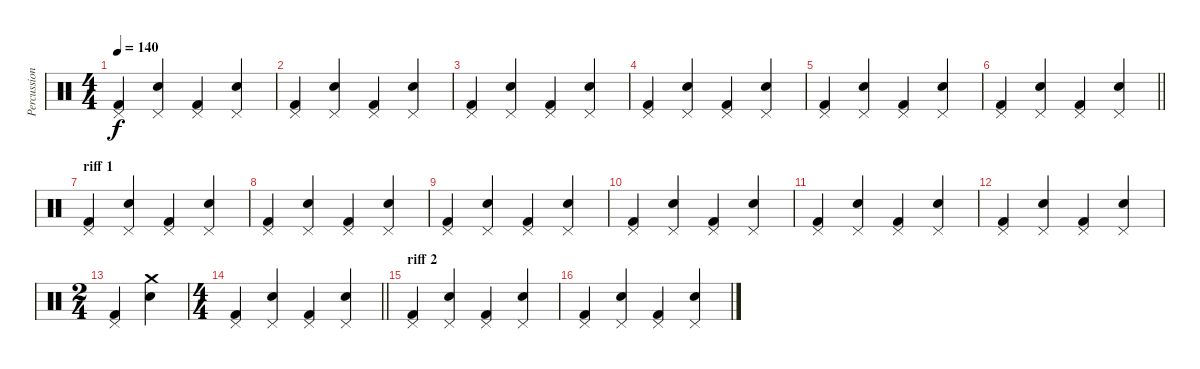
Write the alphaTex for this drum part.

\track ("Percussion" "Percussion") {instrument percussion}
\staff {score}
\articulation defaults
\ts (4 4)
\tempo 140
\clef neutral
\ks c
("Kick (hit) 2" "Pedal Hi-Hat (hit)").4{dy f} ("Snare (hit) 2" "Pedal Hi-Hat (hit)").4 ("Kick (hit) 2" "Pedal Hi-Hat (hit)").4 ("Snare (hit) 2" "Pedal Hi-Hat (hit)").4 |
("Kick (hit) 2" "Pedal Hi-Hat (hit)").4 ("Snare (hit) 2" "Pedal Hi-Hat (hit)").4 ("Kick (hit) 2" "Pedal Hi-Hat (hit)").4 ("Snare (hit) 2" "Pedal Hi-Hat (hit)").4 |
("Kick (hit) 2" "Pedal Hi-Hat (hit)").4 ("Snare (hit) 2" "Pedal Hi-Hat (hit)").4 ("Kick (hit) 2" "Pedal Hi-Hat (hit)").4 ("Snare (hit) 2" "Pedal Hi-Hat (hit)").4 |
("Kick (hit) 2" "Pedal Hi-Hat (hit)").4 ("Snare (hit) 2" "Pedal Hi-Hat (hit)").4 ("Kick (hit) 2" "Pedal Hi-Hat (hit)").4 ("Snare (hit) 2" "Pedal Hi-Hat (hit)").4 |
("Kick (hit) 2" "Pedal Hi-Hat (hit)").4 ("Snare (hit) 2" "Pedal Hi-Hat (hit)").4 ("Kick (hit) 2" "Pedal Hi-Hat (hit)").4 ("Snare (hit) 2" "Pedal Hi-Hat (hit)").4 |
\barLineRight lightlight
("Kick (hit) 2" "Pedal Hi-Hat (hit)").4 ("Snare (hit) 2" "Pedal Hi-Hat (hit)").4 ("Kick (hit) 2" "Pedal Hi-Hat (hit)").4 ("Snare (hit) 2" "Pedal Hi-Hat (hit)").4 |
\section ("" "riff 1")
("Kick (hit) 2" "Pedal Hi-Hat (hit)").4 ("Snare (hit) 2" "Pedal Hi-Hat (hit)").4 ("Kick (hit) 2" "Pedal Hi-Hat (hit)").4 ("Snare (hit) 2" "Pedal Hi-Hat (hit)").4 |
("Kick (hit) 2" "Pedal Hi-Hat (hit)").4 ("Snare (hit) 2" "Pedal Hi-Hat (hit)").4 ("Kick (hit) 2" "Pedal Hi-Hat (hit)").4 ("Snare (hit) 2" "Pedal Hi-Hat (hit)").4 |
("Kick (hit) 2" "Pedal Hi-Hat (hit)").4 ("Snare (hit) 2" "Pedal Hi-Hat (hit)").4 ("Kick (hit) 2" "Pedal Hi-Hat (hit)").4 ("Snare (hit) 2" "Pedal Hi-Hat (hit)").4 |
("Kick (hit) 2" "Pedal Hi-Hat (hit)").4 ("Snare (hit) 2" "Pedal Hi-Hat (hit)").4 ("Kick (hit) 2" "Pedal Hi-Hat (hit)").4 ("Snare (hit) 2" "Pedal Hi-Hat (hit)").4 |
("Kick (hit) 2" "Pedal Hi-Hat (hit)").4 ("Snare (hit) 2" "Pedal Hi-Hat (hit)").4 ("Kick (hit) 2" "Pedal Hi-Hat (hit)").4 ("Snare (hit) 2" "Pedal Hi-Hat (hit)").4 |
("Kick (hit) 2" "Pedal Hi-Hat (hit)").4 ("Snare (hit) 2" "Pedal Hi-Hat (hit)").4 ("Kick (hit) 2" "Pedal Hi-Hat (hit)").4 ("Snare (hit) 2" "Pedal Hi-Hat (hit)").4 |
\ts (2 4)
("Kick (hit) 2" "Pedal Hi-Hat (hit)").4 ("Snare (hit) 2" "Crash medium (hit)").4 |
\ts (4 4)
\barLineRight lightlight
("Kick (hit) 2" "Pedal Hi-Hat (hit)").4 ("Snare (hit) 2" "Pedal Hi-Hat (hit)").4 ("Kick (hit) 2" "Pedal Hi-Hat (hit)").4 ("Snare (hit) 2" "Pedal Hi-Hat (hit)").4 |
\section ("" "riff 2")
("Kick (hit) 2" "Pedal Hi-Hat (hit)").4 ("Snare (hit) 2" "Pedal Hi-Hat (hit)").4 ("Kick (hit) 2" "Pedal Hi-Hat (hit)").4 ("Snare (hit) 2" "Pedal Hi-Hat (hit)").4 |
("Kick (hit) 2" "Pedal Hi-Hat (hit)").4 ("Snare (hit) 2" "Pedal Hi-Hat (hit)").4 ("Kick (hit) 2" "Pedal Hi-Hat (hit)").4 ("Snare (hit) 2" "Pedal Hi-Hat (hit)").4
